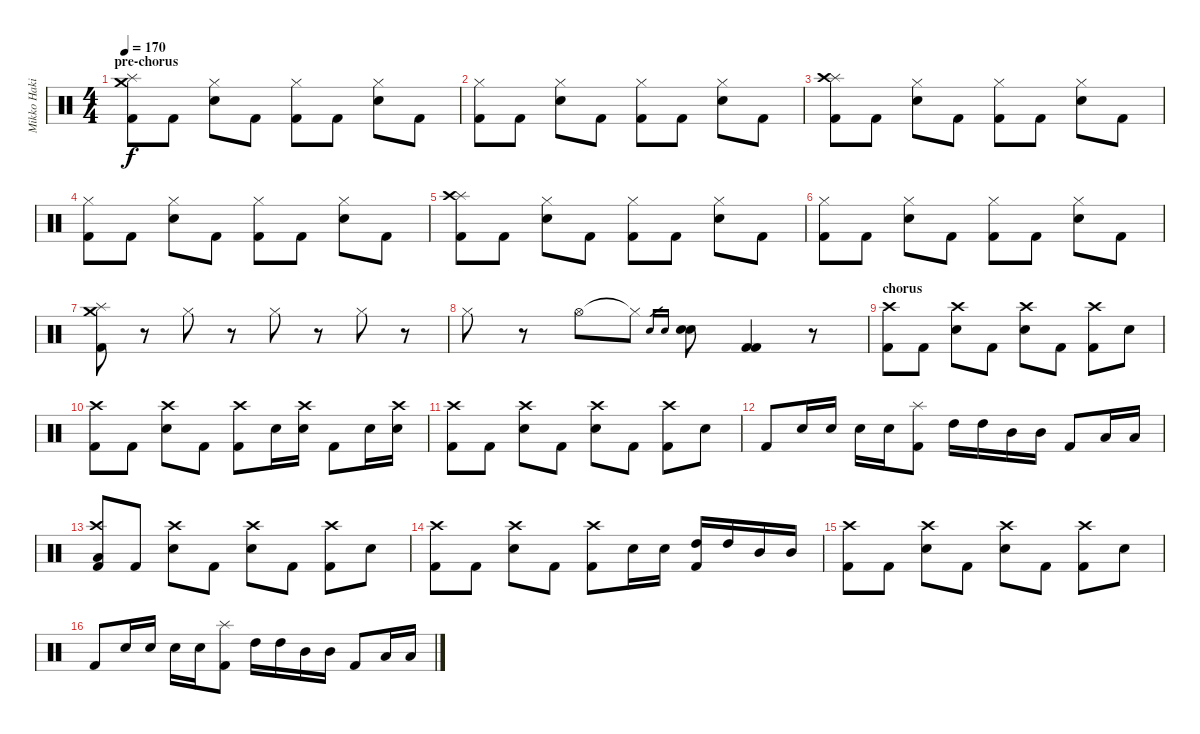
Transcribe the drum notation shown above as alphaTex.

\track ("Mikko Hakila - drums" "Mikko Haki") {instrument percussion}
\staff {score}
\articulation defaults
\ts (4 4)
\section ("" "pre-chorus")
\tempo 170
\clef neutral
\ks c
("Splash (hit)" "Crash medium (hit)" "Kick (hit) 2").8{dy f} "Kick (hit) 2".8 ("Hi-Hat (closed)" "Snare (hit) 2").8 "Kick (hit) 2".8 ("Hi-Hat (closed)" "Kick (hit) 2").8 "Kick (hit) 2".8 ("Hi-Hat (closed)" "Snare (hit) 2").8 "Kick (hit) 2".8 |
("Hi-Hat (closed)" "Kick (hit) 2").8 "Kick (hit) 2".8 ("Hi-Hat (closed)" "Snare (hit) 2").8 "Kick (hit) 2".8 ("Hi-Hat (closed)" "Kick (hit) 2").8 "Kick (hit) 2".8 ("Hi-Hat (closed)" "Snare (hit) 2").8 "Kick (hit) 2".8 |
("Splash (hit)" "Crash high (hit)" "Kick (hit) 2").8 "Kick (hit) 2".8 ("Hi-Hat (closed)" "Snare (hit) 2").8 "Kick (hit) 2".8 ("Hi-Hat (closed)" "Kick (hit) 2").8 "Kick (hit) 2".8 ("Hi-Hat (closed)" "Snare (hit) 2").8 "Kick (hit) 2".8 |
("Hi-Hat (closed)" "Kick (hit) 2").8 "Kick (hit) 2".8 ("Hi-Hat (closed)" "Snare (hit) 2").8 "Kick (hit) 2".8 ("Hi-Hat (closed)" "Kick (hit) 2").8 "Kick (hit) 2".8 ("Hi-Hat (closed)" "Snare (hit) 2").8 "Kick (hit) 2".8 |
("Splash (hit)" "Crash high (hit)" "Kick (hit) 2").8 "Kick (hit) 2".8 ("Hi-Hat (closed)" "Snare (hit) 2").8 "Kick (hit) 2".8 ("Hi-Hat (closed)" "Kick (hit) 2").8 "Kick (hit) 2".8 ("Hi-Hat (closed)" "Snare (hit) 2").8 "Kick (hit) 2".8 |
("Hi-Hat (closed)" "Kick (hit) 2").8 "Kick (hit) 2".8 ("Hi-Hat (closed)" "Snare (hit) 2").8 "Kick (hit) 2".8 ("Hi-Hat (closed)" "Kick (hit) 2").8 "Kick (hit) 2".8 ("Hi-Hat (closed)" "Snare (hit) 2").8 "Kick (hit) 2".8 |
("Splash (hit)" "Crash medium (hit)" "Kick (hit) 2").8 r.8 "Hi-Hat (closed)".8 r.8 "Hi-Hat (closed)".8 r.8 "Hi-Hat (closed)".8 r.8 |
"Hi-Hat (closed)".8 r.8 "Hi-Hat (open)".8 "Hi-Hat (closed)"{t}.8 "Snare (hit) 2".16{gr} "Snare (hit) 2".16{gr} ("Snare (hit) 2" "Snare (hit) 2").8 ("Kick (hit) 2" "Kick (hit) 2").4 r.8 |
\section ("" "chorus")
("Crash high (hit)" "Kick (hit) 2").8 "Kick (hit) 2".8 ("Crash high (hit)" "Snare (hit) 2").8 "Kick (hit) 2".8 ("Crash high (hit)" "Snare (hit) 2").8 "Kick (hit) 2".8 ("Crash high (hit)" "Kick (hit) 2").8 "Snare (hit) 2".8 |
("Crash high (hit)" "Kick (hit) 2").8 "Kick (hit) 2".8 ("Crash high (hit)" "Snare (hit) 2").8 "Kick (hit) 2".8 ("Crash high (hit)" "Kick (hit) 2").8 "Snare (hit) 2".16 ("Crash high (hit)" "Snare (hit) 2").16 "Kick (hit) 2".8 "Snare (hit) 2".16 ("Crash high (hit)" "Snare (hit) 2").16 |
("Crash high (hit)" "Kick (hit) 2").8 "Kick (hit) 2".8 ("Crash high (hit)" "Snare (hit) 2").8 "Kick (hit) 2".8 ("Crash high (hit)" "Snare (hit) 2").8 "Kick (hit) 2".8 ("Crash high (hit)" "Kick (hit) 2").8 "Snare (hit) 2".8 |
"Kick (hit) 2".8 "Snare (hit) 2".16 "Snare (hit) 2".16 "Snare (hit) 2".16 "Snare (hit) 2".16 ("Splash (hit)" "Kick (hit) 2").8 "High Tom (hit)".16 "High Tom (hit)".16 "Mid Tom (hit)".16 "Mid Tom (hit)".16 "Kick (hit) 2".8 "Low Tom (hit)".16 "Low Tom (hit)".16 |
("Crash high (hit)" "Low Tom (hit)" "Kick (hit) 2").8 "Kick (hit) 2".8 ("Crash high (hit)" "Snare (hit) 2").8 "Kick (hit) 2".8 ("Crash high (hit)" "Snare (hit) 2").8 "Kick (hit) 2".8 ("Crash high (hit)" "Kick (hit) 2").8 "Snare (hit) 2".8 |
("Crash high (hit)" "Kick (hit) 2").8 "Kick (hit) 2".8 ("Crash high (hit)" "Snare (hit) 2").8 "Kick (hit) 2".8 ("Crash high (hit)" "Kick (hit) 2").8 "Snare (hit) 2".16 "Snare (hit) 2".16 ("High Tom (hit)" "Kick (hit) 2").16 "High Tom (hit)".16 "Mid Tom (hit)".16 "Mid Tom (hit)".16 |
("Crash high (hit)" "Kick (hit) 2").8 "Kick (hit) 2".8 ("Crash high (hit)" "Snare (hit) 2").8 "Kick (hit) 2".8 ("Crash high (hit)" "Snare (hit) 2").8 "Kick (hit) 2".8 ("Crash high (hit)" "Kick (hit) 2").8 "Snare (hit) 2".8 |
"Kick (hit) 2".8 "Snare (hit) 2".16 "Snare (hit) 2".16 "Snare (hit) 2".16 "Snare (hit) 2".16 ("Splash (hit)" "Kick (hit) 2").8 "High Tom (hit)".16 "High Tom (hit)".16 "Mid Tom (hit)".16 "Mid Tom (hit)".16 "Kick (hit) 2".8 "Low Tom (hit)".16 "Low Tom (hit)".16
